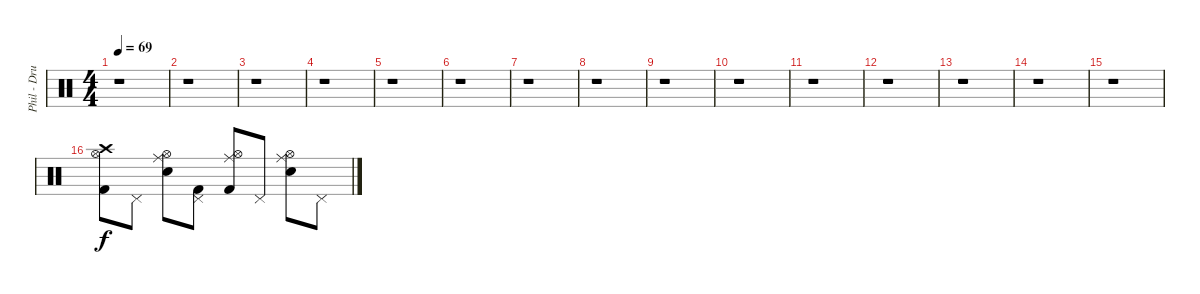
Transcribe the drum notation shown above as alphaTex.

\track ("Phil - Drums" "Phil - Dru") {instrument percussion}
\staff {score}
\articulation defaults
\ts (4 4)
\tempo 69
\clef neutral
\ks c
r.1{dy f} |
r.1 |
r.1 |
r.1 |
r.1 |
r.1 |
r.1 |
r.1 |
r.1 |
r.1 |
r.1 |
r.1 |
r.1 |
r.1 |
r.1 |
("Crash high (hit)" "Kick (hit) 2" "Hi-Hat (open)").8 "Pedal Hi-Hat (hit)".8 ("Ride (middle)" "Snare (hit) 2" "Hi-Hat (open)").8 ("Kick (hit) 2" "Pedal Hi-Hat (hit)").8 ("Ride (middle)" "Kick (hit) 2" "Hi-Hat (open)").8 "Pedal Hi-Hat (hit)".8 ("Ride (middle)" "Snare (hit) 2" "Hi-Hat (open)").8 "Pedal Hi-Hat (hit)".8
